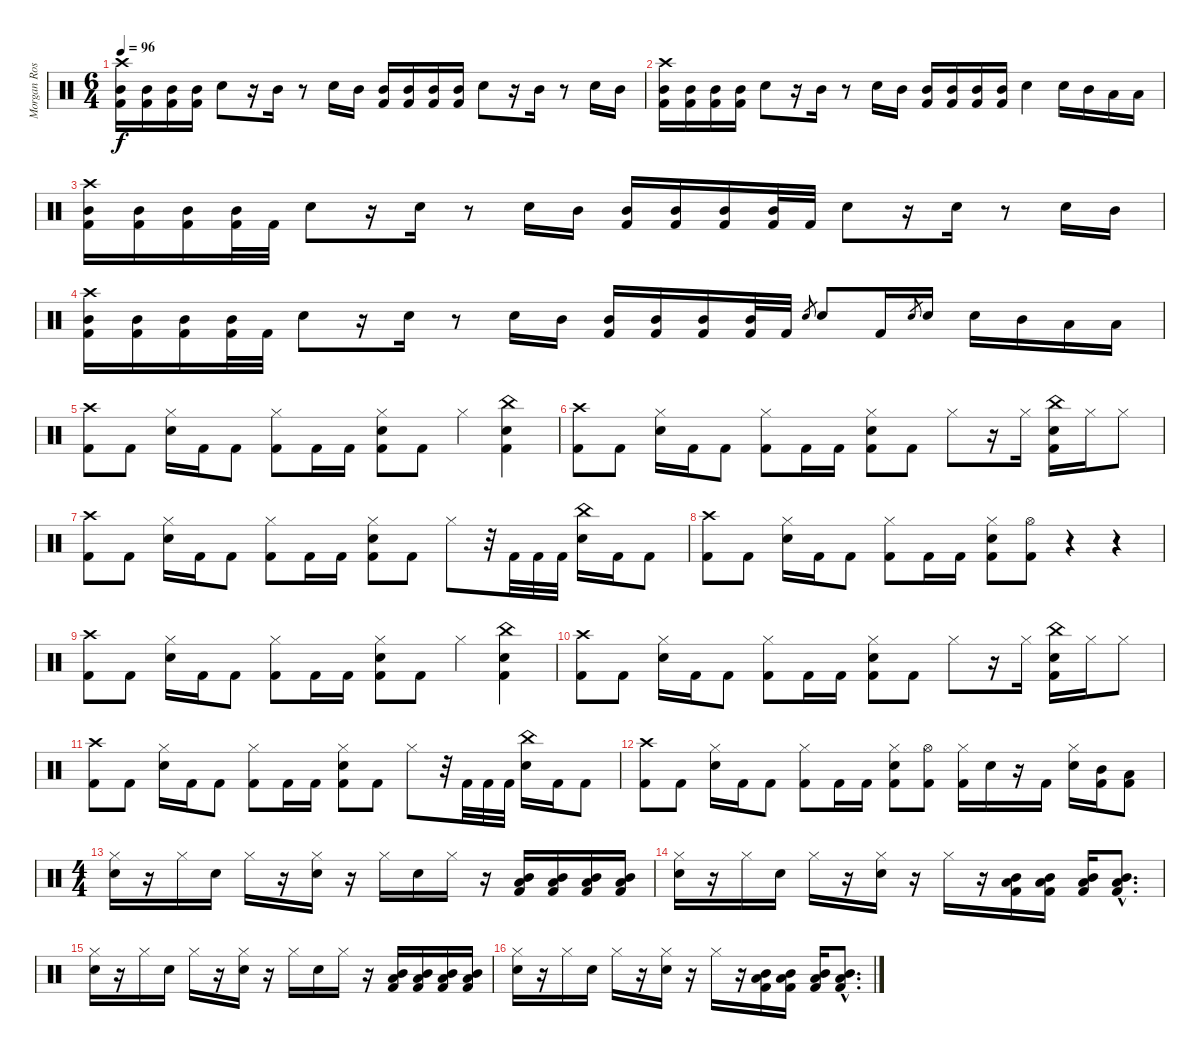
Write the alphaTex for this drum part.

\track ("Morgan Rose - Drums" "Morgan Ros") {instrument percussion}
\staff {score}
\articulation defaults
\ts (6 4)
\tempo 96
\clef neutral
\ks c
("Crash high (hit)" "Mid Tom (hit)" "Kick (hit) 2").16{dy f} ("Mid Tom (hit)" "Kick (hit) 2").16 ("Mid Tom (hit)" "Kick (hit) 2").16 ("Mid Tom (hit)" "Kick (hit) 2").16 "Electric Snare (hit)".8 r.16 "Mid Tom (hit)".16 r.8 "Electric Snare (hit)".16 "Mid Tom (hit)".16 ("Mid Tom (hit)" "Kick (hit) 2").16 ("Mid Tom (hit)" "Kick (hit) 2").16 ("Mid Tom (hit)" "Kick (hit) 2").16 ("Mid Tom (hit)" "Kick (hit) 2").16 "Electric Snare (hit)".8 r.16 "Mid Tom (hit)".16 r.8 "Electric Snare (hit)".16 "Mid Tom (hit)".16 |
("Crash high (hit)" "Mid Tom (hit)" "Kick (hit) 2").16 ("Mid Tom (hit)" "Kick (hit) 2").16 ("Mid Tom (hit)" "Kick (hit) 2").16 ("Mid Tom (hit)" "Kick (hit) 2").16 "Electric Snare (hit)".8 r.16 "Mid Tom (hit)".16 r.8 "Electric Snare (hit)".16 "Mid Tom (hit)".16 ("Mid Tom (hit)" "Kick (hit) 2").16 ("Mid Tom (hit)" "Kick (hit) 2").16 ("Mid Tom (hit)" "Kick (hit) 2").16 ("Mid Tom (hit)" "Kick (hit) 2").16 "Electric Snare (hit)".4 "Electric Snare (hit)".16 "Mid Tom (hit)".16 "Low Tom (hit)".16 "Low Tom (hit)".16 |
("Crash high (hit)" "Mid Tom (hit)" "Kick (hit) 2").16 ("Mid Tom (hit)" "Kick (hit) 2").16 ("Mid Tom (hit)" "Kick (hit) 2").16 ("Mid Tom (hit)" "Kick (hit) 2").32 "Kick (hit) 2".32 "Electric Snare (hit)".8 r.16 "Electric Snare (hit)".16 r.8 "Electric Snare (hit)".16 "Mid Tom (hit)".16 ("Mid Tom (hit)" "Kick (hit) 2").16 ("Mid Tom (hit)" "Kick (hit) 2").16 ("Mid Tom (hit)" "Kick (hit) 2").16 ("Mid Tom (hit)" "Kick (hit) 2").32 "Kick (hit) 2".32 "Electric Snare (hit)".8 r.16 "Electric Snare (hit)".16 r.8 "Electric Snare (hit)".16 "Mid Tom (hit)".16 |
("Crash high (hit)" "Mid Tom (hit)" "Kick (hit) 2").16 ("Mid Tom (hit)" "Kick (hit) 2").16 ("Mid Tom (hit)" "Kick (hit) 2").16 ("Mid Tom (hit)" "Kick (hit) 2").32 "Kick (hit) 2".32 "Electric Snare (hit)".8 r.16 "Electric Snare (hit)".16 r.8 "Electric Snare (hit)".16 "Mid Tom (hit)".16 ("Mid Tom (hit)" "Kick (hit) 2").16 ("Mid Tom (hit)" "Kick (hit) 2").16 ("Mid Tom (hit)" "Kick (hit) 2").16 ("Mid Tom (hit)" "Kick (hit) 2").32 "Kick (hit) 2".32 "Electric Snare (hit)".8{gr} "Electric Snare (hit)".8 "Kick (hit) 2".16 "Electric Snare (hit)".8{gr} "Electric Snare (hit)".16 "Electric Snare (hit)".16 "Mid Tom (hit)".16 "Low Tom (hit)".16 "Low Tom (hit)".16 |
("Crash high (hit)" "Kick (hit) 2").8 "Kick (hit) 2".8 ("Hi-Hat (closed)" "Electric Snare (hit)").16 "Kick (hit) 2".16 "Kick (hit) 2".8 ("Hi-Hat (closed)" "Kick (hit) 2").8 "Kick (hit) 2".16 "Kick (hit) 2".16 ("Hi-Hat (closed)" "Electric Snare (hit)" "Kick (hit) 2").8 "Kick (hit) 2".8 "Hi-Hat (closed)".4 ("China (hit)" "Electric Snare (hit)" "Kick (hit) 2").4 |
("Crash high (hit)" "Kick (hit) 2").8 "Kick (hit) 2".8 ("Hi-Hat (closed)" "Electric Snare (hit)").16 "Kick (hit) 2".16 "Kick (hit) 2".8 ("Hi-Hat (closed)" "Kick (hit) 2").8 "Kick (hit) 2".16 "Kick (hit) 2".16 ("Hi-Hat (closed)" "Electric Snare (hit)" "Kick (hit) 2").8 "Kick (hit) 2".8 "Hi-Hat (closed)".8 r.16 "Hi-Hat (closed)".16 ("China (hit)" "Electric Snare (hit)" "Kick (hit) 2").16 "Hi-Hat (closed)".16 "Hi-Hat (closed)".8 |
("Crash high (hit)" "Kick (hit) 2").8 "Kick (hit) 2".8 ("Hi-Hat (closed)" "Electric Snare (hit)").16 "Kick (hit) 2".16 "Kick (hit) 2".8 ("Hi-Hat (closed)" "Kick (hit) 2").8 "Kick (hit) 2".16 "Kick (hit) 2".16 ("Hi-Hat (closed)" "Electric Snare (hit)" "Kick (hit) 2").8 "Kick (hit) 2".8 "Hi-Hat (closed)".8 r.32 "Kick (hit) 2".32 "Kick (hit) 2".32 "Kick (hit) 2".32 ("China (hit)" "Electric Snare (hit)").16 "Kick (hit) 2".16 "Kick (hit) 2".8 |
("Crash high (hit)" "Kick (hit) 2").8 "Kick (hit) 2".8 ("Hi-Hat (closed)" "Electric Snare (hit)").16 "Kick (hit) 2".16 "Kick (hit) 2".8 ("Hi-Hat (closed)" "Kick (hit) 2").8 "Kick (hit) 2".16 "Kick (hit) 2".16 ("Hi-Hat (closed)" "Electric Snare (hit)" "Kick (hit) 2").8 ("Hi-Hat (open)" "Kick (hit) 2").8 r.4 r.4 |
("Crash high (hit)" "Kick (hit) 2").8 "Kick (hit) 2".8 ("Hi-Hat (closed)" "Electric Snare (hit)").16 "Kick (hit) 2".16 "Kick (hit) 2".8 ("Hi-Hat (closed)" "Kick (hit) 2").8 "Kick (hit) 2".16 "Kick (hit) 2".16 ("Hi-Hat (closed)" "Electric Snare (hit)" "Kick (hit) 2").8 "Kick (hit) 2".8 "Hi-Hat (closed)".4 ("China (hit)" "Electric Snare (hit)" "Kick (hit) 2").4 |
("Crash high (hit)" "Kick (hit) 2").8 "Kick (hit) 2".8 ("Hi-Hat (closed)" "Electric Snare (hit)").16 "Kick (hit) 2".16 "Kick (hit) 2".8 ("Hi-Hat (closed)" "Kick (hit) 2").8 "Kick (hit) 2".16 "Kick (hit) 2".16 ("Hi-Hat (closed)" "Electric Snare (hit)" "Kick (hit) 2").8 "Kick (hit) 2".8 "Hi-Hat (closed)".8 r.16 "Hi-Hat (closed)".16 ("China (hit)" "Electric Snare (hit)" "Kick (hit) 2").16 "Hi-Hat (closed)".16 "Hi-Hat (closed)".8 |
("Crash high (hit)" "Kick (hit) 2").8 "Kick (hit) 2".8 ("Hi-Hat (closed)" "Electric Snare (hit)").16 "Kick (hit) 2".16 "Kick (hit) 2".8 ("Hi-Hat (closed)" "Kick (hit) 2").8 "Kick (hit) 2".16 "Kick (hit) 2".16 ("Hi-Hat (closed)" "Electric Snare (hit)" "Kick (hit) 2").8 "Kick (hit) 2".8 "Hi-Hat (closed)".8 r.32 "Kick (hit) 2".32 "Kick (hit) 2".32 "Kick (hit) 2".32 ("China (hit)" "Electric Snare (hit)").16 "Kick (hit) 2".16 "Kick (hit) 2".8 |
("Crash high (hit)" "Kick (hit) 2").8 "Kick (hit) 2".8 ("Hi-Hat (closed)" "Electric Snare (hit)").16 "Kick (hit) 2".16 "Kick (hit) 2".8 ("Hi-Hat (closed)" "Kick (hit) 2").8 "Kick (hit) 2".16 "Kick (hit) 2".16 ("Hi-Hat (closed)" "Electric Snare (hit)" "Kick (hit) 2").8 ("Hi-Hat (open)" "Kick (hit) 2").8 ("Hi-Hat (closed)" "Kick (hit) 2").16 "Electric Snare (hit)".16 r.16 "Kick (hit) 2".16 ("Hi-Hat (closed)" "Electric Snare (hit)").16 ("Mid Tom (hit)" "Kick (hit) 2").16 ("Low Tom (hit)" "Kick (hit) 2").8 |
\ts (4 4)
("Hi-Hat (closed)" "Electric Snare (hit)").16 r.16 "Hi-Hat (closed)".16 "Electric Snare (hit)".16 "Hi-Hat (closed)".16 r.16 ("Hi-Hat (closed)" "Electric Snare (hit)").16 r.16 "Hi-Hat (closed)".16 "Electric Snare (hit)".16 "Hi-Hat (closed)".16 r.16 ("Mid Tom (hit)" "Low Tom (hit)" "Kick (hit) 2").16 ("Mid Tom (hit)" "Low Tom (hit)" "Kick (hit) 2").16 ("Mid Tom (hit)" "Low Tom (hit)" "Kick (hit) 2").16 ("Mid Tom (hit)" "Low Tom (hit)" "Kick (hit) 2").16 |
("Hi-Hat (closed)" "Electric Snare (hit)").16 r.16 "Hi-Hat (closed)".16 "Electric Snare (hit)".16 "Hi-Hat (closed)".16 r.16 ("Hi-Hat (closed)" "Electric Snare (hit)").16 r.16 "Hi-Hat (closed)".16 r.16 ("Mid Tom (hit)" "Low Tom (hit)" "Kick (hit) 2").16 ("Mid Tom (hit)" "Low Tom (hit)" "Kick (hit) 2").16 ("Mid Tom (hit)" "Low Tom (hit)" "Kick (hit) 2").16 ("Mid Tom (hit)"{hac} "Low Tom (hit)"{hac} "Kick (hit) 2"{hac}).8{d} |
("Hi-Hat (closed)" "Electric Snare (hit)").16 r.16 "Hi-Hat (closed)".16 "Electric Snare (hit)".16 "Hi-Hat (closed)".16 r.16 ("Hi-Hat (closed)" "Electric Snare (hit)").16 r.16 "Hi-Hat (closed)".16 "Electric Snare (hit)".16 "Hi-Hat (closed)".16 r.16 ("Mid Tom (hit)" "Low Tom (hit)" "Kick (hit) 2").16 ("Mid Tom (hit)" "Low Tom (hit)" "Kick (hit) 2").16 ("Mid Tom (hit)" "Low Tom (hit)" "Kick (hit) 2").16 ("Mid Tom (hit)" "Low Tom (hit)" "Kick (hit) 2").16 |
("Hi-Hat (closed)" "Electric Snare (hit)").16 r.16 "Hi-Hat (closed)".16 "Electric Snare (hit)".16 "Hi-Hat (closed)".16 r.16 ("Hi-Hat (closed)" "Electric Snare (hit)").16 r.16 "Hi-Hat (closed)".16 r.16 ("Mid Tom (hit)" "Low Tom (hit)" "Kick (hit) 2").16 ("Mid Tom (hit)" "Low Tom (hit)" "Kick (hit) 2").16 ("Mid Tom (hit)" "Low Tom (hit)" "Kick (hit) 2").16 ("Mid Tom (hit)"{hac} "Low Tom (hit)"{hac} "Kick (hit) 2"{hac}).8{d}
